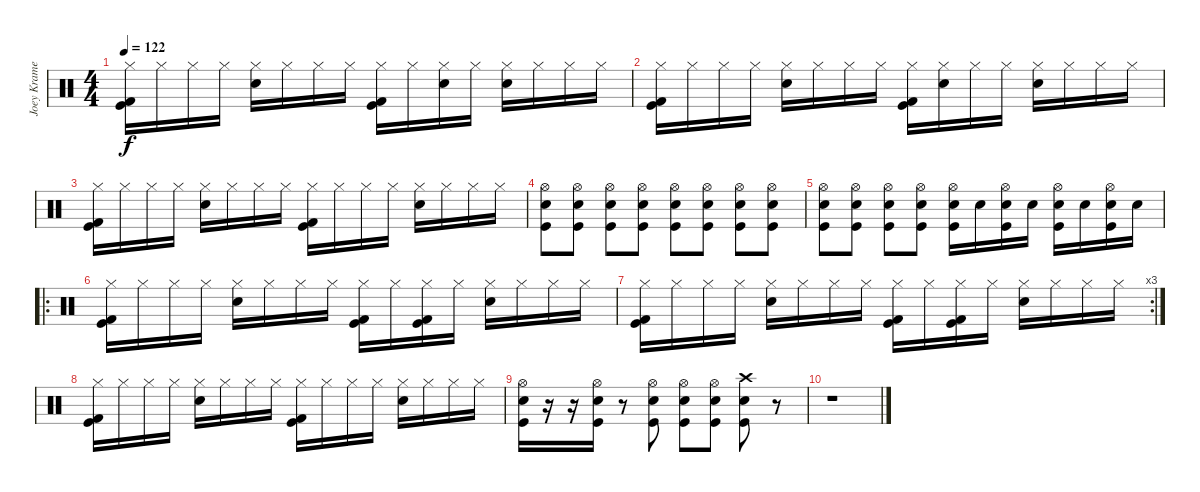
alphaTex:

\track ("Joey Kramer" "Joey Krame") {instrument percussion}
\staff {score}
\articulation defaults
\ts (4 4)
\tempo 122
\clef neutral
\ks c
("Hi-Hat (closed)" "Kick (hit)" "Kick (hit) 2").16{dy f} "Hi-Hat (closed)".16 "Hi-Hat (closed)".16 "Hi-Hat (closed)".16 ("Hi-Hat (closed)" "Snare (hit) 2").16 "Hi-Hat (closed)".16 "Hi-Hat (closed)".16 "Hi-Hat (closed)".16 ("Hi-Hat (closed)" "Kick (hit)" "Kick (hit) 2").16 "Hi-Hat (closed)".16 ("Hi-Hat (closed)" "Snare (hit) 2").16 "Hi-Hat (closed)".16 ("Hi-Hat (closed)" "Snare (hit) 2").16 "Hi-Hat (closed)".16 "Hi-Hat (closed)".16 "Hi-Hat (closed)".16 |
("Hi-Hat (closed)" "Kick (hit)" "Kick (hit) 2").16 "Hi-Hat (closed)".16 "Hi-Hat (closed)".16 "Hi-Hat (closed)".16 ("Hi-Hat (closed)" "Snare (hit) 2").16 "Hi-Hat (closed)".16 "Hi-Hat (closed)".16 "Hi-Hat (closed)".16 ("Hi-Hat (closed)" "Kick (hit)" "Kick (hit) 2").16 ("Hi-Hat (closed)" "Snare (hit) 2").16 "Hi-Hat (closed)".16 "Hi-Hat (closed)".16 ("Hi-Hat (closed)" "Snare (hit) 2").16 "Hi-Hat (closed)".16 "Hi-Hat (closed)".16 "Hi-Hat (closed)".16 |
("Hi-Hat (closed)" "Kick (hit)" "Kick (hit) 2").16 "Hi-Hat (closed)".16 "Hi-Hat (closed)".16 "Hi-Hat (closed)".16 ("Hi-Hat (closed)" "Snare (hit) 2").16 "Hi-Hat (closed)".16 "Hi-Hat (closed)".16 "Hi-Hat (closed)".16 ("Hi-Hat (closed)" "Kick (hit)" "Kick (hit) 2").16 "Hi-Hat (closed)".16 "Hi-Hat (closed)".16 "Hi-Hat (closed)".16 ("Hi-Hat (closed)" "Snare (hit) 2").16 "Hi-Hat (closed)".16 "Hi-Hat (closed)".16 "Hi-Hat (closed)".16 |
("Kick (hit)" "Snare (hit) 2" "Hi-Hat (open)").8 ("Kick (hit)" "Snare (hit) 2" "Hi-Hat (open)").8 ("Kick (hit)" "Snare (hit) 2" "Hi-Hat (open)").8 ("Kick (hit)" "Snare (hit) 2" "Hi-Hat (open)").8 ("Kick (hit)" "Snare (hit) 2" "Hi-Hat (open)").8 ("Kick (hit)" "Snare (hit) 2" "Hi-Hat (open)").8 ("Kick (hit)" "Snare (hit) 2" "Hi-Hat (open)").8 ("Kick (hit)" "Snare (hit) 2" "Hi-Hat (open)").8 |
("Kick (hit)" "Snare (hit) 2" "Hi-Hat (open)").8 ("Kick (hit)" "Snare (hit) 2" "Hi-Hat (open)").8 ("Kick (hit)" "Snare (hit) 2" "Hi-Hat (open)").8 ("Kick (hit)" "Snare (hit) 2" "Hi-Hat (open)").8 ("Kick (hit)" "Snare (hit) 2" "Hi-Hat (open)").16 "Snare (hit) 2".16 ("Kick (hit)" "Snare (hit) 2" "Hi-Hat (open)").16 "Snare (hit) 2".16 ("Kick (hit)" "Snare (hit) 2" "Hi-Hat (open)").16 "Snare (hit) 2".16 ("Kick (hit)" "Snare (hit) 2" "Hi-Hat (open)").16 "Snare (hit) 2".16 |
\ro
("Hi-Hat (closed)" "Kick (hit)" "Kick (hit) 2").16 "Hi-Hat (closed)".16 "Hi-Hat (closed)".16 "Hi-Hat (closed)".16 ("Hi-Hat (closed)" "Snare (hit) 2").16 "Hi-Hat (closed)".16 "Hi-Hat (closed)".16 "Hi-Hat (closed)".16 ("Hi-Hat (closed)" "Kick (hit)" "Kick (hit) 2").16 "Hi-Hat (closed)".16 ("Hi-Hat (closed)" "Kick (hit)" "Kick (hit) 2").16 "Hi-Hat (closed)".16 ("Hi-Hat (closed)" "Snare (hit) 2").16 "Hi-Hat (closed)".16 "Hi-Hat (closed)".16 "Hi-Hat (closed)".16 |
\rc 3
("Hi-Hat (closed)" "Kick (hit)" "Kick (hit) 2").16 "Hi-Hat (closed)".16 "Hi-Hat (closed)".16 "Hi-Hat (closed)".16 ("Hi-Hat (closed)" "Snare (hit) 2").16 "Hi-Hat (closed)".16 "Hi-Hat (closed)".16 "Hi-Hat (closed)".16 ("Hi-Hat (closed)" "Kick (hit)" "Kick (hit) 2").16 "Hi-Hat (closed)".16 ("Hi-Hat (closed)" "Kick (hit)" "Kick (hit) 2").16 "Hi-Hat (closed)".16 ("Hi-Hat (closed)" "Snare (hit) 2").16 "Hi-Hat (closed)".16 "Hi-Hat (closed)".16 "Hi-Hat (closed)".16 |
("Hi-Hat (closed)" "Kick (hit)" "Kick (hit) 2").16 "Hi-Hat (closed)".16 "Hi-Hat (closed)".16 "Hi-Hat (closed)".16 ("Hi-Hat (closed)" "Snare (hit) 2").16 "Hi-Hat (closed)".16 "Hi-Hat (closed)".16 "Hi-Hat (closed)".16 ("Hi-Hat (closed)" "Kick (hit)" "Kick (hit) 2").16 "Hi-Hat (closed)".16 "Hi-Hat (closed)".16 "Hi-Hat (closed)".16 ("Hi-Hat (closed)" "Snare (hit) 2").16 "Hi-Hat (closed)".16 "Hi-Hat (closed)".16 "Hi-Hat (closed)".16 |
("Kick (hit)" "Snare (hit) 2" "Hi-Hat (open)").16 r.16 r.16 ("Kick (hit)" "Snare (hit) 2" "Hi-Hat (open)").16 r.8 ("Kick (hit)" "Snare (hit) 2" "Hi-Hat (open)").8 ("Kick (hit)" "Snare (hit) 2" "Hi-Hat (open)").8 ("Kick (hit)" "Snare (hit) 2" "Hi-Hat (open)").8 ("Kick (hit)" "Snare (hit) 2" "Crash high (hit)").8 r.8 |
r.1
